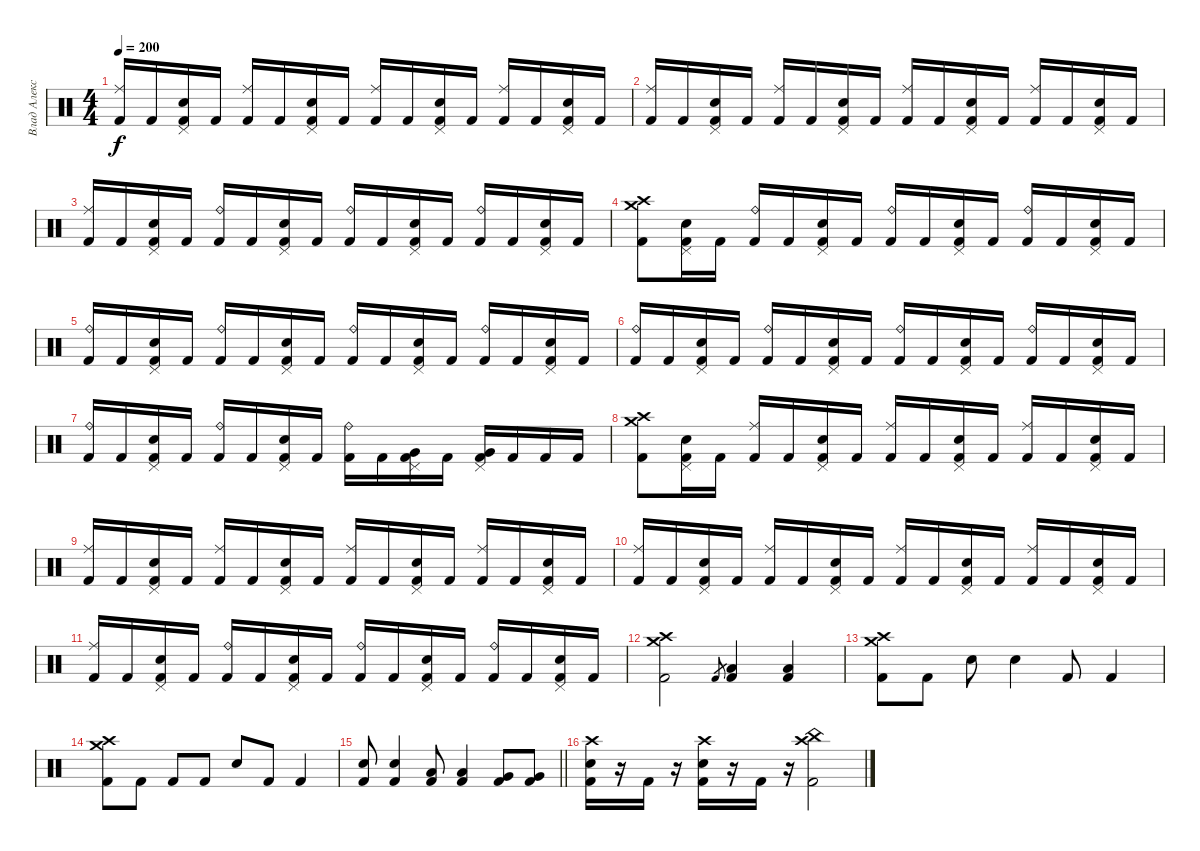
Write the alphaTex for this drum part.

\track ("Влад Алексеенко" "Влад Алекс") {instrument percussion}
\staff {score}
\articulation defaults
\ts (4 4)
\tempo 200
\clef neutral
\ks c
("Kick (hit) 2" "Ride (middle)").16{dy f} "Kick (hit) 2".16 ("Kick (hit) 2" "Electric Snare (hit)" "Pedal Hi-Hat (hit)").16 "Kick (hit) 2".16 ("Kick (hit) 2" "Ride (middle)").16 "Kick (hit) 2".16 ("Kick (hit) 2" "Electric Snare (hit)" "Pedal Hi-Hat (hit)").16 "Kick (hit) 2".16 ("Kick (hit) 2" "Ride (middle)").16 "Kick (hit) 2".16 ("Kick (hit) 2" "Electric Snare (hit)" "Pedal Hi-Hat (hit)").16 "Kick (hit) 2".16 ("Kick (hit) 2" "Ride (middle)").16 "Kick (hit) 2".16 ("Kick (hit) 2" "Electric Snare (hit)" "Pedal Hi-Hat (hit)").16 "Kick (hit) 2".16 |
("Kick (hit) 2" "Ride (middle)").16 "Kick (hit) 2".16 ("Kick (hit) 2" "Electric Snare (hit)" "Pedal Hi-Hat (hit)").16 "Kick (hit) 2".16 ("Kick (hit) 2" "Ride (middle)").16 "Kick (hit) 2".16 ("Kick (hit) 2" "Electric Snare (hit)" "Pedal Hi-Hat (hit)").16 "Kick (hit) 2".16 ("Kick (hit) 2" "Ride (middle)").16 "Kick (hit) 2".16 ("Kick (hit) 2" "Electric Snare (hit)" "Pedal Hi-Hat (hit)").16 "Kick (hit) 2".16 ("Kick (hit) 2" "Ride (middle)").16 "Kick (hit) 2".16 ("Kick (hit) 2" "Electric Snare (hit)" "Pedal Hi-Hat (hit)").16 "Kick (hit) 2".16 |
("Kick (hit) 2" "Ride (middle)").16 "Kick (hit) 2".16 ("Kick (hit) 2" "Electric Snare (hit)" "Pedal Hi-Hat (hit)").16 "Kick (hit) 2".16 ("Kick (hit) 2" "Ride (bell)").16 "Kick (hit) 2".16 ("Kick (hit) 2" "Electric Snare (hit)" "Pedal Hi-Hat (hit)").16 "Kick (hit) 2".16 ("Kick (hit) 2" "Ride (bell)").16 "Kick (hit) 2".16 ("Kick (hit) 2" "Electric Snare (hit)" "Pedal Hi-Hat (hit)").16 "Kick (hit) 2".16 ("Kick (hit) 2" "Ride (bell)").16 "Kick (hit) 2".16 ("Kick (hit) 2" "Electric Snare (hit)" "Pedal Hi-Hat (hit)").16 "Kick (hit) 2".16 |
("Crash high (hit)" "Crash medium (hit)" "Kick (hit) 2").8 ("Kick (hit) 2" "Electric Snare (hit)" "Pedal Hi-Hat (hit)").16 "Kick (hit) 2".16 ("Kick (hit) 2" "Ride (bell)").16 "Kick (hit) 2".16 ("Kick (hit) 2" "Electric Snare (hit)" "Pedal Hi-Hat (hit)").16 "Kick (hit) 2".16 ("Kick (hit) 2" "Ride (bell)").16 "Kick (hit) 2".16 ("Kick (hit) 2" "Electric Snare (hit)" "Pedal Hi-Hat (hit)").16 "Kick (hit) 2".16 ("Kick (hit) 2" "Ride (bell)").16 "Kick (hit) 2".16 ("Kick (hit) 2" "Electric Snare (hit)" "Pedal Hi-Hat (hit)").16 "Kick (hit) 2".16 |
("Kick (hit) 2" "Ride (bell)").16 "Kick (hit) 2".16 ("Kick (hit) 2" "Electric Snare (hit)" "Pedal Hi-Hat (hit)").16 "Kick (hit) 2".16 ("Kick (hit) 2" "Ride (bell)").16 "Kick (hit) 2".16 ("Kick (hit) 2" "Electric Snare (hit)" "Pedal Hi-Hat (hit)").16 "Kick (hit) 2".16 ("Kick (hit) 2" "Ride (bell)").16 "Kick (hit) 2".16 ("Kick (hit) 2" "Electric Snare (hit)" "Pedal Hi-Hat (hit)").16 "Kick (hit) 2".16 ("Kick (hit) 2" "Ride (bell)").16 "Kick (hit) 2".16 ("Kick (hit) 2" "Electric Snare (hit)" "Pedal Hi-Hat (hit)").16 "Kick (hit) 2".16 |
("Kick (hit) 2" "Ride (bell)").16 "Kick (hit) 2".16 ("Kick (hit) 2" "Electric Snare (hit)" "Pedal Hi-Hat (hit)").16 "Kick (hit) 2".16 ("Kick (hit) 2" "Ride (bell)").16 "Kick (hit) 2".16 ("Kick (hit) 2" "Electric Snare (hit)" "Pedal Hi-Hat (hit)").16 "Kick (hit) 2".16 ("Kick (hit) 2" "Ride (bell)").16 "Kick (hit) 2".16 ("Kick (hit) 2" "Electric Snare (hit)" "Pedal Hi-Hat (hit)").16 "Kick (hit) 2".16 ("Kick (hit) 2" "Ride (bell)").16 "Kick (hit) 2".16 ("Kick (hit) 2" "Electric Snare (hit)" "Pedal Hi-Hat (hit)").16 "Kick (hit) 2".16 |
("Kick (hit) 2" "Ride (bell)").16 "Kick (hit) 2".16 ("Kick (hit) 2" "Electric Snare (hit)" "Pedal Hi-Hat (hit)").16 "Kick (hit) 2".16 ("Kick (hit) 2" "Ride (bell)").16 "Kick (hit) 2".16 ("Kick (hit) 2" "Electric Snare (hit)" "Pedal Hi-Hat (hit)").16 "Kick (hit) 2".16 ("Kick (hit) 2" "Ride (bell)").16 "Kick (hit) 2".16 ("Kick (hit) 2" "Pedal Hi-Hat (hit)" "Very Low Tom (hit)").16 "Kick (hit) 2".16 ("Kick (hit) 2" "Pedal Hi-Hat (hit)" "Very Low Tom (hit)").16 "Kick (hit) 2".16 "Kick (hit) 2".16 "Kick (hit) 2".16 |
("Crash high (hit)" "Crash medium (hit)" "Kick (hit) 2").8 ("Kick (hit) 2" "Electric Snare (hit)" "Pedal Hi-Hat (hit)").16 "Kick (hit) 2".16 ("Kick (hit) 2" "Ride (middle)").16 "Kick (hit) 2".16 ("Kick (hit) 2" "Electric Snare (hit)" "Pedal Hi-Hat (hit)").16 "Kick (hit) 2".16 ("Kick (hit) 2" "Ride (middle)").16 "Kick (hit) 2".16 ("Kick (hit) 2" "Electric Snare (hit)" "Pedal Hi-Hat (hit)").16 "Kick (hit) 2".16 ("Kick (hit) 2" "Ride (middle)").16 "Kick (hit) 2".16 ("Kick (hit) 2" "Electric Snare (hit)" "Pedal Hi-Hat (hit)").16 "Kick (hit) 2".16 |
("Kick (hit) 2" "Ride (middle)").16 "Kick (hit) 2".16 ("Kick (hit) 2" "Electric Snare (hit)" "Pedal Hi-Hat (hit)").16 "Kick (hit) 2".16 ("Kick (hit) 2" "Ride (middle)").16 "Kick (hit) 2".16 ("Kick (hit) 2" "Electric Snare (hit)" "Pedal Hi-Hat (hit)").16 "Kick (hit) 2".16 ("Kick (hit) 2" "Ride (middle)").16 "Kick (hit) 2".16 ("Kick (hit) 2" "Electric Snare (hit)" "Pedal Hi-Hat (hit)").16 "Kick (hit) 2".16 ("Kick (hit) 2" "Ride (middle)").16 "Kick (hit) 2".16 ("Kick (hit) 2" "Electric Snare (hit)" "Pedal Hi-Hat (hit)").16 "Kick (hit) 2".16 |
("Kick (hit) 2" "Ride (middle)").16 "Kick (hit) 2".16 ("Kick (hit) 2" "Electric Snare (hit)" "Pedal Hi-Hat (hit)").16 "Kick (hit) 2".16 ("Kick (hit) 2" "Ride (middle)").16 "Kick (hit) 2".16 ("Kick (hit) 2" "Electric Snare (hit)" "Pedal Hi-Hat (hit)").16 "Kick (hit) 2".16 ("Kick (hit) 2" "Ride (middle)").16 "Kick (hit) 2".16 ("Kick (hit) 2" "Electric Snare (hit)" "Pedal Hi-Hat (hit)").16 "Kick (hit) 2".16 ("Kick (hit) 2" "Ride (middle)").16 "Kick (hit) 2".16 ("Kick (hit) 2" "Electric Snare (hit)" "Pedal Hi-Hat (hit)").16 "Kick (hit) 2".16 |
("Kick (hit) 2" "Ride (middle)").16 "Kick (hit) 2".16 ("Kick (hit) 2" "Electric Snare (hit)" "Pedal Hi-Hat (hit)").16 "Kick (hit) 2".16 ("Kick (hit) 2" "Ride (bell)").16 "Kick (hit) 2".16 ("Kick (hit) 2" "Electric Snare (hit)" "Pedal Hi-Hat (hit)").16 "Kick (hit) 2".16 ("Kick (hit) 2" "Ride (bell)").16 "Kick (hit) 2".16 ("Kick (hit) 2" "Electric Snare (hit)" "Pedal Hi-Hat (hit)").16 "Kick (hit) 2".16 ("Kick (hit) 2" "Ride (bell)").16 "Kick (hit) 2".16 ("Kick (hit) 2" "Electric Snare (hit)" "Pedal Hi-Hat (hit)").16 "Kick (hit) 2".16 |
("Crash high (hit)" "Crash medium (hit)" "Kick (hit) 2").2 "Kick (hit) 2".8{gr} ("Low Floor Tom (hit)" "Kick (hit) 2").4 ("Low Floor Tom (hit)" "Kick (hit) 2").4 |
("Crash high (hit)" "Crash medium (hit)" "Kick (hit) 2").8 "Kick (hit) 2".8 "Electric Snare (hit)".8 "Electric Snare (hit)".4 "Kick (hit) 2".8 "Kick (hit) 2".4 |
("Crash high (hit)" "Crash medium (hit)" "Kick (hit) 2").8 "Kick (hit) 2".8 "Kick (hit) 2".8 "Kick (hit) 2".8 "Electric Snare (hit)".8 "Kick (hit) 2".8 "Kick (hit) 2".4 |
\barLineRight lightlight
("Electric Snare (hit)" "Kick (hit) 2").8 ("Electric Snare (hit)" "Kick (hit) 2").4 ("Low Tom (hit)" "Kick (hit) 2").8 ("Low Tom (hit)" "Kick (hit) 2").4 ("Very Low Tom (hit)" "Kick (hit) 2").8 ("Very Low Tom (hit)" "Kick (hit) 2").8 |
("Crash high (hit)" "Electric Snare (hit)" "Kick (hit) 2").16 r.16 "Kick (hit) 2".16 r.16 ("Crash high (hit)" "Electric Snare (hit)" "Kick (hit) 2").16 r.16 "Kick (hit) 2".16 r.16 ("Crash high (hit)" "China (hit)" "Kick (hit) 2").2
